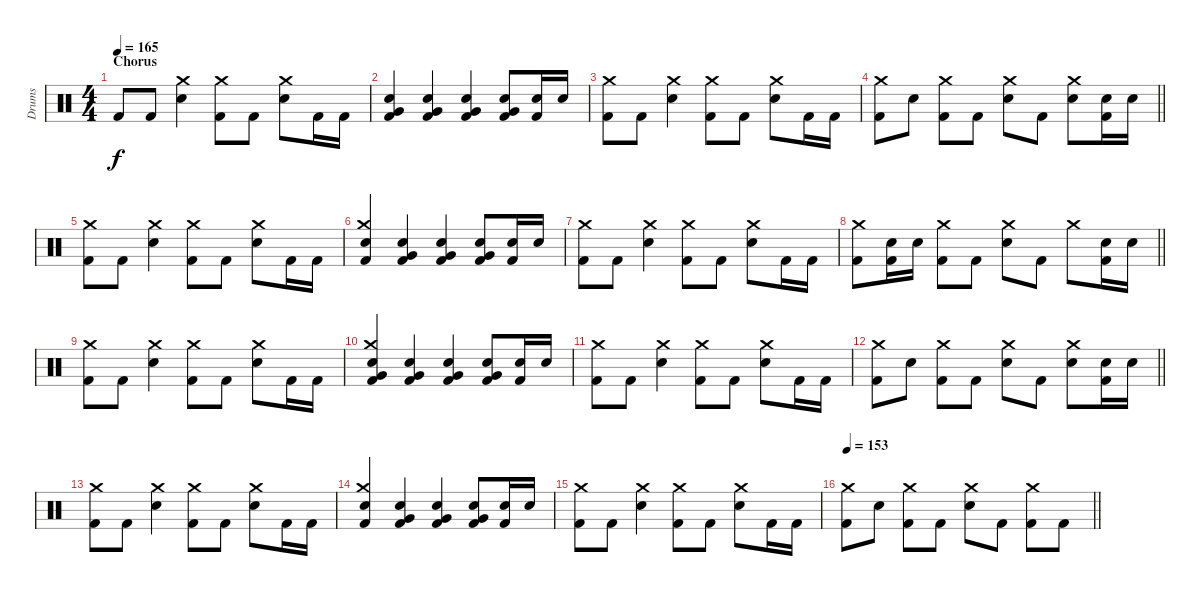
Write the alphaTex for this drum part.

\track ("Drums" "Drums") {instrument percussion}
\staff {score}
\articulation defaults
\ts (4 4)
\section ("" "Chorus")
\tempo 165
\clef neutral
\ks c "Kick (hit) 2".8{dy f} "Kick (hit) 2".8
("Crash medium (hit)" "Electric Snare (hit)").4 ("Crash medium (hit)" "Kick (hit) 2").8 "Kick (hit) 2".8 ("Crash medium (hit)" "Electric Snare (hit)").8 "Kick (hit) 2".16 "Kick (hit) 2".16 |
("Very Low Tom (hit)" "Electric Snare (hit)" "Kick (hit) 2").4 ("Very Low Tom (hit)" "Electric Snare (hit)" "Kick (hit) 2").4 ("Very Low Tom (hit)" "Electric Snare (hit)" "Kick (hit) 2").4 ("Very Low Tom (hit)" "Electric Snare (hit)" "Kick (hit) 2").8 ("Electric Snare (hit)" "Kick (hit) 2").16 "Electric Snare (hit)".16 |
("Crash medium (hit)" "Kick (hit) 2").8 "Kick (hit) 2".8 ("Crash medium (hit)" "Electric Snare (hit)").4 ("Crash medium (hit)" "Kick (hit) 2").8 "Kick (hit) 2".8 ("Crash medium (hit)" "Electric Snare (hit)").8 "Kick (hit) 2".16 "Kick (hit) 2".16 |
\barLineRight lightlight
("Crash medium (hit)" "Kick (hit) 2").8 "Electric Snare (hit)".8 ("Crash medium (hit)" "Kick (hit) 2").8 "Kick (hit) 2".8 ("Crash medium (hit)" "Electric Snare (hit)").8 "Kick (hit) 2".8 ("Crash medium (hit)" "Electric Snare (hit)").8 ("Electric Snare (hit)" "Kick (hit) 2").16 "Electric Snare (hit)".16 |
("Crash medium (hit)" "Kick (hit) 2").8 "Kick (hit) 2".8 ("Crash medium (hit)" "Electric Snare (hit)").4 ("Crash medium (hit)" "Kick (hit) 2").8 "Kick (hit) 2".8 ("Crash medium (hit)" "Electric Snare (hit)").8 "Kick (hit) 2".16 "Kick (hit) 2".16 |
("Crash medium (hit)" "Electric Snare (hit)" "Kick (hit) 2").4 ("Very Low Tom (hit)" "Electric Snare (hit)" "Kick (hit) 2").4 ("Very Low Tom (hit)" "Electric Snare (hit)" "Kick (hit) 2").4 ("Very Low Tom (hit)" "Electric Snare (hit)" "Kick (hit) 2").8 ("Electric Snare (hit)" "Kick (hit) 2").16 "Electric Snare (hit)".16 |
("Crash medium (hit)" "Kick (hit) 2").8 "Kick (hit) 2".8 ("Crash medium (hit)" "Electric Snare (hit)").4 ("Crash medium (hit)" "Kick (hit) 2").8 "Kick (hit) 2".8 ("Crash medium (hit)" "Electric Snare (hit)").8 "Kick (hit) 2".16 "Kick (hit) 2".16 |
\barLineRight lightlight
("Crash medium (hit)" "Kick (hit) 2").8 ("Electric Snare (hit)" "Kick (hit) 2").16 "Electric Snare (hit)".16 ("Crash medium (hit)" "Kick (hit) 2").8 "Kick (hit) 2".8 ("Crash medium (hit)" "Electric Snare (hit)").8 "Kick (hit) 2".8 "Crash medium (hit)".8 ("Electric Snare (hit)" "Kick (hit) 2").16 "Electric Snare (hit)".16 |
("Crash medium (hit)" "Kick (hit) 2").8 "Kick (hit) 2".8 ("Crash medium (hit)" "Electric Snare (hit)").4 ("Crash medium (hit)" "Kick (hit) 2").8 "Kick (hit) 2".8 ("Crash medium (hit)" "Electric Snare (hit)").8 "Kick (hit) 2".16 "Kick (hit) 2".16 |
("Crash medium (hit)" "Very Low Tom (hit)" "Electric Snare (hit)" "Kick (hit) 2").4 ("Very Low Tom (hit)" "Electric Snare (hit)" "Kick (hit) 2").4 ("Very Low Tom (hit)" "Electric Snare (hit)" "Kick (hit) 2").4 ("Very Low Tom (hit)" "Electric Snare (hit)" "Kick (hit) 2").8 ("Electric Snare (hit)" "Kick (hit) 2").16 "Electric Snare (hit)".16 |
("Crash medium (hit)" "Kick (hit) 2").8 "Kick (hit) 2".8 ("Crash medium (hit)" "Electric Snare (hit)").4 ("Crash medium (hit)" "Kick (hit) 2").8 "Kick (hit) 2".8 ("Crash medium (hit)" "Electric Snare (hit)").8 "Kick (hit) 2".16 "Kick (hit) 2".16 |
\barLineRight lightlight
("Crash medium (hit)" "Kick (hit) 2").8 "Electric Snare (hit)".8 ("Crash medium (hit)" "Kick (hit) 2").8 "Kick (hit) 2".8 ("Crash medium (hit)" "Electric Snare (hit)").8 "Kick (hit) 2".8 ("Crash medium (hit)" "Electric Snare (hit)").8 ("Electric Snare (hit)" "Kick (hit) 2").16 "Electric Snare (hit)".16 |
("Crash medium (hit)" "Kick (hit) 2").8 "Kick (hit) 2".8 ("Crash medium (hit)" "Electric Snare (hit)").4 ("Crash medium (hit)" "Kick (hit) 2").8 "Kick (hit) 2".8 ("Crash medium (hit)" "Electric Snare (hit)").8 "Kick (hit) 2".16 "Kick (hit) 2".16 |
("Crash medium (hit)" "Electric Snare (hit)" "Kick (hit) 2").4 ("Very Low Tom (hit)" "Electric Snare (hit)" "Kick (hit) 2").4 ("Very Low Tom (hit)" "Electric Snare (hit)" "Kick (hit) 2").4 ("Very Low Tom (hit)" "Electric Snare (hit)" "Kick (hit) 2").8 ("Electric Snare (hit)" "Kick (hit) 2").16 "Electric Snare (hit)".16 |
("Crash medium (hit)" "Kick (hit) 2").8 "Kick (hit) 2".8 ("Crash medium (hit)" "Electric Snare (hit)").4 ("Crash medium (hit)" "Kick (hit) 2").8 "Kick (hit) 2".8 ("Crash medium (hit)" "Electric Snare (hit)").8 "Kick (hit) 2".16 "Kick (hit) 2".16 |
\tempo 153
\barLineRight lightlight
("Crash medium (hit)" "Kick (hit) 2").8 "Electric Snare (hit)".8 ("Crash medium (hit)" "Kick (hit) 2").8 "Kick (hit) 2".8 ("Crash medium (hit)" "Electric Snare (hit)").8 "Kick (hit) 2".8 ("Crash medium (hit)" "Kick (hit) 2").8 "Kick (hit) 2".8
